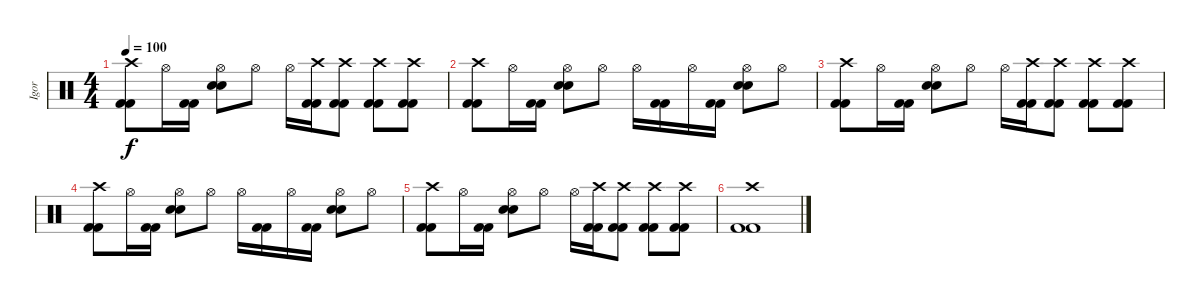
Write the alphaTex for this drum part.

\track ("Igor" "Igor") {instrument percussion}
\staff {score}
\articulation defaults
\ts (4 4)
\tempo 100
\clef neutral
\ks c
("Crash high (hit)" "Kick (hit) 2" "Kick (hit) 2").8{dy f} "Hi-Hat (open)".16 ("Kick (hit) 2" "Kick (hit) 2").16 ("Hi-Hat (open)" "Electric Snare (hit)" "Electric Snare (hit)").8 "Hi-Hat (open)".8 "Hi-Hat (open)".16 ("Crash high (hit)" "Kick (hit) 2" "Kick (hit) 2").16 ("Crash high (hit)" "Kick (hit) 2" "Kick (hit) 2").8 ("Crash high (hit)" "Kick (hit) 2" "Kick (hit) 2").8 ("Crash high (hit)" "Kick (hit) 2" "Kick (hit) 2").8 |
("Crash high (hit)" "Kick (hit) 2" "Kick (hit) 2").8 "Hi-Hat (open)".16 ("Kick (hit) 2" "Kick (hit) 2").16 ("Hi-Hat (open)" "Electric Snare (hit)" "Electric Snare (hit)").8 "Hi-Hat (open)".8 "Hi-Hat (open)".16 ("Kick (hit) 2" "Kick (hit) 2").16 "Hi-Hat (open)".16 ("Kick (hit) 2" "Kick (hit) 2").16 ("Hi-Hat (open)" "Electric Snare (hit)" "Electric Snare (hit)").8 "Hi-Hat (open)".8 |
("Crash high (hit)" "Kick (hit) 2" "Kick (hit) 2").8 "Hi-Hat (open)".16 ("Kick (hit) 2" "Kick (hit) 2").16 ("Hi-Hat (open)" "Electric Snare (hit)" "Electric Snare (hit)").8 "Hi-Hat (open)".8 "Hi-Hat (open)".16 ("Crash high (hit)" "Kick (hit) 2" "Kick (hit) 2").16 ("Crash high (hit)" "Kick (hit) 2" "Kick (hit) 2").8 ("Crash high (hit)" "Kick (hit) 2" "Kick (hit) 2").8 ("Crash high (hit)" "Kick (hit) 2" "Kick (hit) 2").8 |
("Crash high (hit)" "Kick (hit) 2" "Kick (hit) 2").8 "Hi-Hat (open)".16 ("Kick (hit) 2" "Kick (hit) 2").16 ("Hi-Hat (open)" "Electric Snare (hit)" "Electric Snare (hit)").8 "Hi-Hat (open)".8 "Hi-Hat (open)".16 ("Kick (hit) 2" "Kick (hit) 2").16 "Hi-Hat (open)".16 ("Kick (hit) 2" "Kick (hit) 2").16 ("Hi-Hat (open)" "Electric Snare (hit)" "Electric Snare (hit)").8 "Hi-Hat (open)".8 |
("Crash high (hit)" "Kick (hit) 2" "Kick (hit) 2").8 "Hi-Hat (open)".16 ("Kick (hit) 2" "Kick (hit) 2").16 ("Hi-Hat (open)" "Electric Snare (hit)" "Electric Snare (hit)").8 "Hi-Hat (open)".8 "Hi-Hat (open)".16 ("Crash high (hit)" "Kick (hit) 2" "Kick (hit) 2").16 ("Crash high (hit)" "Kick (hit) 2" "Kick (hit) 2").8 ("Crash high (hit)" "Kick (hit) 2" "Kick (hit) 2").8 ("Crash high (hit)" "Kick (hit) 2" "Kick (hit) 2").8 |
("Crash high (hit)" "Kick (hit) 2" "Kick (hit) 2").1
